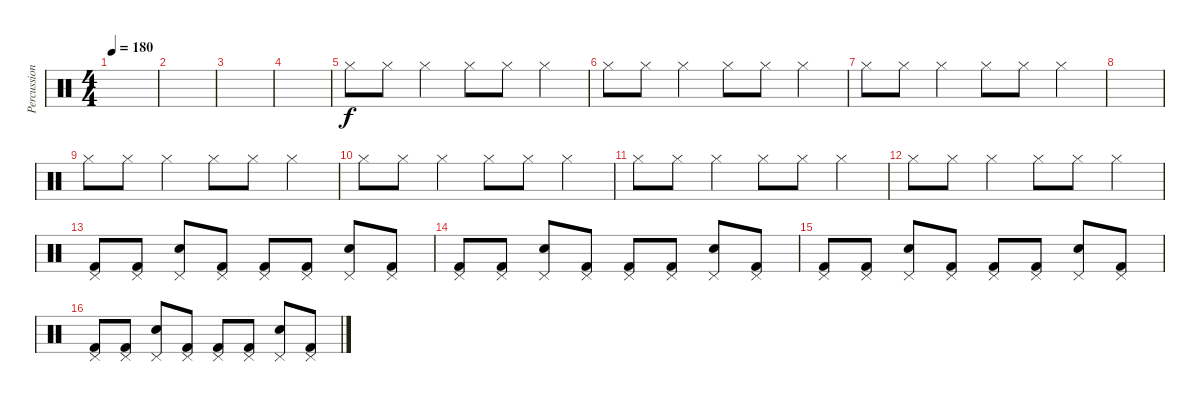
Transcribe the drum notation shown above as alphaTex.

\track ("Percussion" "Percussion") {instrument percussion}
\staff
\articulation defaults
\ts (4 4)
\tempo 180
\clef neutral
\ks c
|
|
|
|
"Hi-Hat (closed)".8 "Hi-Hat (closed)".8 "Hi-Hat (closed)".4 "Hi-Hat (closed)".8 "Hi-Hat (closed)".8 "Hi-Hat (closed)".4 |
"Hi-Hat (closed)".8 "Hi-Hat (closed)".8 "Hi-Hat (closed)".4 "Hi-Hat (closed)".8 "Hi-Hat (closed)".8 "Hi-Hat (closed)".4 |
"Hi-Hat (closed)".8 "Hi-Hat (closed)".8 "Hi-Hat (closed)".4 "Hi-Hat (closed)".8 "Hi-Hat (closed)".8 "Hi-Hat (closed)".4 |
|
"Hi-Hat (closed)".8 "Hi-Hat (closed)".8 "Hi-Hat (closed)".4 "Hi-Hat (closed)".8 "Hi-Hat (closed)".8 "Hi-Hat (closed)".4 |
"Hi-Hat (closed)".8 "Hi-Hat (closed)".8 "Hi-Hat (closed)".4 "Hi-Hat (closed)".8 "Hi-Hat (closed)".8 "Hi-Hat (closed)".4 |
"Hi-Hat (closed)".8 "Hi-Hat (closed)".8 "Hi-Hat (closed)".4 "Hi-Hat (closed)".8 "Hi-Hat (closed)".8 "Hi-Hat (closed)".4 |
"Hi-Hat (closed)".8 "Hi-Hat (closed)".8 "Hi-Hat (closed)".4 "Hi-Hat (closed)".8 "Hi-Hat (closed)".8 "Hi-Hat (closed)".4 |
("Pedal Hi-Hat (hit)" "Kick (hit) 2").8 ("Pedal Hi-Hat (hit)" "Kick (hit) 2").8 ("Pedal Hi-Hat (hit)" "Snare (hit) 2").8 ("Pedal Hi-Hat (hit)" "Kick (hit) 2").8 ("Pedal Hi-Hat (hit)" "Kick (hit) 2").8 ("Pedal Hi-Hat (hit)" "Kick (hit) 2").8 ("Pedal Hi-Hat (hit)" "Snare (hit) 2").8 ("Pedal Hi-Hat (hit)" "Kick (hit) 2").8 |
("Pedal Hi-Hat (hit)" "Kick (hit) 2").8 ("Pedal Hi-Hat (hit)" "Kick (hit) 2").8 ("Pedal Hi-Hat (hit)" "Snare (hit) 2").8 ("Pedal Hi-Hat (hit)" "Kick (hit) 2").8 ("Pedal Hi-Hat (hit)" "Kick (hit) 2").8 ("Pedal Hi-Hat (hit)" "Kick (hit) 2").8 ("Pedal Hi-Hat (hit)" "Snare (hit) 2").8 ("Pedal Hi-Hat (hit)" "Kick (hit) 2").8 |
("Pedal Hi-Hat (hit)" "Kick (hit) 2").8 ("Pedal Hi-Hat (hit)" "Kick (hit) 2").8 ("Pedal Hi-Hat (hit)" "Snare (hit) 2").8 ("Pedal Hi-Hat (hit)" "Kick (hit) 2").8 ("Pedal Hi-Hat (hit)" "Kick (hit) 2").8 ("Pedal Hi-Hat (hit)" "Kick (hit) 2").8 ("Pedal Hi-Hat (hit)" "Snare (hit) 2").8 ("Pedal Hi-Hat (hit)" "Kick (hit) 2").8 |
("Pedal Hi-Hat (hit)" "Kick (hit) 2").8 ("Pedal Hi-Hat (hit)" "Kick (hit) 2").8 ("Pedal Hi-Hat (hit)" "Snare (hit) 2").8 ("Pedal Hi-Hat (hit)" "Kick (hit) 2").8 ("Pedal Hi-Hat (hit)" "Kick (hit) 2").8 ("Pedal Hi-Hat (hit)" "Kick (hit) 2").8 ("Pedal Hi-Hat (hit)" "Snare (hit) 2").8 ("Pedal Hi-Hat (hit)" "Kick (hit) 2").8
